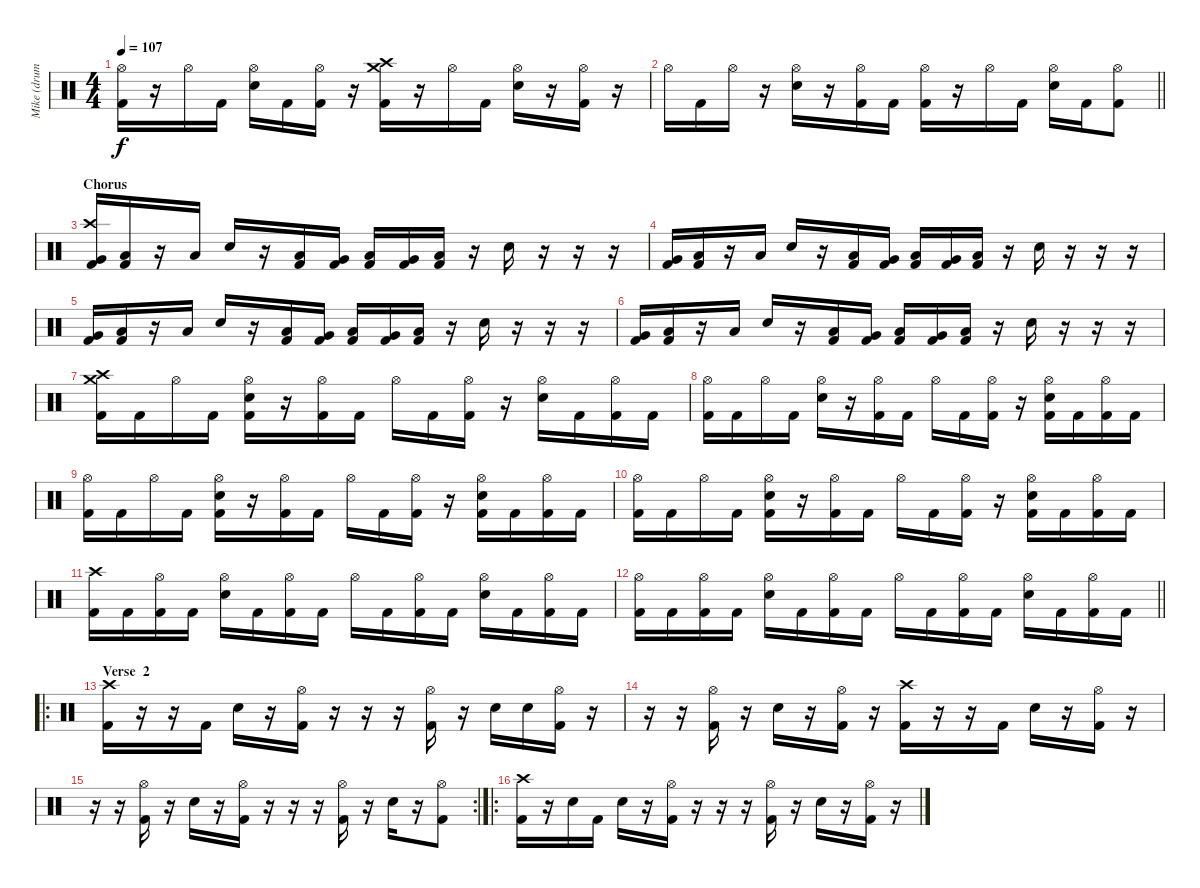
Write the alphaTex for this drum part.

\track ("Mike (drums)" "Mike (drum") {instrument percussion}
\staff {score}
\articulation defaults
\ts (4 4)
\tempo 107
\clef neutral
\ks c
("Hi-Hat (open)" "Kick (hit) 2").16{dy f} r.16 "Hi-Hat (open)".16 "Kick (hit) 2".16 ("Hi-Hat (open)" "Electric Snare (hit)").16 "Kick (hit) 2".16 ("Hi-Hat (open)" "Kick (hit) 2").16 r.16 ("Crash medium (hit)" "Crash high (hit)" "Kick (hit) 2").16 r.16 "Hi-Hat (open)".16 "Kick (hit) 2".16 ("Hi-Hat (open)" "Electric Snare (hit)").16 r.16 ("Hi-Hat (open)" "Kick (hit) 2").16 r.16 |
\barLineRight lightlight "Hi-Hat (open)".16 "Kick (hit) 2".16 "Hi-Hat (open)".16
r.16 ("Hi-Hat (open)" "Electric Snare (hit)").16 r.16 ("Hi-Hat (open)" "Kick (hit) 2").16 "Kick (hit) 2".16 ("Hi-Hat (open)" "Kick (hit) 2").16 r.16 "Hi-Hat (open)".16 "Kick (hit) 2".16 ("Hi-Hat (open)" "Electric Snare (hit)").16 "Kick (hit) 2".16 ("Hi-Hat (open)" "Kick (hit) 2").8 |
\section ("" "Chorus")
("Crash high (hit)" "Very Low Tom (hit)" "Kick (hit) 2").16 ("Low Floor Tom (hit)" "Kick (hit) 2").16 r.16 "Low Floor Tom (hit)".16 "Electric Snare (hit)".16 r.16 ("Low Floor Tom (hit)" "Kick (hit) 2").16 ("Very Low Tom (hit)" "Kick (hit) 2").16 ("Low Floor Tom (hit)" "Kick (hit) 2").16 ("Very Low Tom (hit)" "Kick (hit) 2").16 ("Low Floor Tom (hit)" "Kick (hit) 2").16 r.16 "Electric Snare (hit)".16 r.16 r.16 r.16 |
("Very Low Tom (hit)" "Kick (hit) 2").16 ("Low Floor Tom (hit)" "Kick (hit) 2").16 r.16 "Low Floor Tom (hit)".16 "Electric Snare (hit)".16 r.16 ("Low Floor Tom (hit)" "Kick (hit) 2").16 ("Very Low Tom (hit)" "Kick (hit) 2").16 ("Low Floor Tom (hit)" "Kick (hit) 2").16 ("Very Low Tom (hit)" "Kick (hit) 2").16 ("Low Floor Tom (hit)" "Kick (hit) 2").16 r.16 "Electric Snare (hit)".16 r.16 r.16 r.16 |
("Very Low Tom (hit)" "Kick (hit) 2").16 ("Low Floor Tom (hit)" "Kick (hit) 2").16 r.16 "Low Floor Tom (hit)".16 "Electric Snare (hit)".16 r.16 ("Low Floor Tom (hit)" "Kick (hit) 2").16 ("Very Low Tom (hit)" "Kick (hit) 2").16 ("Low Floor Tom (hit)" "Kick (hit) 2").16 ("Very Low Tom (hit)" "Kick (hit) 2").16 ("Low Floor Tom (hit)" "Kick (hit) 2").16 r.16 "Electric Snare (hit)".16 r.16 r.16 r.16 |
("Very Low Tom (hit)" "Kick (hit) 2").16 ("Low Floor Tom (hit)" "Kick (hit) 2").16 r.16 "Low Floor Tom (hit)".16 "Electric Snare (hit)".16 r.16 ("Low Floor Tom (hit)" "Kick (hit) 2").16 ("Very Low Tom (hit)" "Kick (hit) 2").16 ("Low Floor Tom (hit)" "Kick (hit) 2").16 ("Very Low Tom (hit)" "Kick (hit) 2").16 ("Low Floor Tom (hit)" "Kick (hit) 2").16 r.16 "Electric Snare (hit)".16 r.16 r.16 r.16 |
("Crash medium (hit)" "Crash high (hit)" "Kick (hit) 2").16 "Kick (hit) 2".16 "Hi-Hat (open)".16 "Kick (hit) 2".16 ("Hi-Hat (open)" "Electric Snare (hit)" "Kick (hit) 2").16 r.16 ("Hi-Hat (open)" "Kick (hit) 2").16 "Kick (hit) 2".16 "Hi-Hat (open)".16 "Kick (hit) 2".16 ("Hi-Hat (open)" "Kick (hit) 2").16 r.16 ("Hi-Hat (open)" "Electric Snare (hit)").16 "Kick (hit) 2".16 ("Hi-Hat (open)" "Kick (hit) 2").16 "Kick (hit) 2".16 |
("Hi-Hat (open)" "Kick (hit) 2").16 "Kick (hit) 2".16 "Hi-Hat (open)".16 "Kick (hit) 2".16 ("Hi-Hat (open)" "Electric Snare (hit)").16 r.16 ("Hi-Hat (open)" "Kick (hit) 2").16 "Kick (hit) 2".16 "Hi-Hat (open)".16 "Kick (hit) 2".16 ("Hi-Hat (open)" "Kick (hit) 2").16 r.16 ("Hi-Hat (open)" "Electric Snare (hit)" "Kick (hit) 2").16 "Kick (hit) 2".16 ("Hi-Hat (open)" "Kick (hit) 2").16 "Kick (hit) 2".16 |
("Hi-Hat (open)" "Kick (hit) 2").16 "Kick (hit) 2".16 "Hi-Hat (open)".16 "Kick (hit) 2".16 ("Hi-Hat (open)" "Electric Snare (hit)" "Kick (hit) 2").16 r.16 ("Hi-Hat (open)" "Kick (hit) 2").16 "Kick (hit) 2".16 "Hi-Hat (open)".16 "Kick (hit) 2".16 ("Hi-Hat (open)" "Kick (hit) 2").16 r.16 ("Hi-Hat (open)" "Electric Snare (hit)" "Kick (hit) 2").16 "Kick (hit) 2".16 ("Hi-Hat (open)" "Kick (hit) 2").16 "Kick (hit) 2".16 |
("Hi-Hat (open)" "Kick (hit) 2").16 "Kick (hit) 2".16 "Hi-Hat (open)".16 "Kick (hit) 2".16 ("Electric Snare (hit)" "Hi-Hat (open)" "Kick (hit) 2").16 r.16 ("Hi-Hat (open)" "Kick (hit) 2").16 "Kick (hit) 2".16 "Hi-Hat (open)".16 "Kick (hit) 2".16 ("Hi-Hat (open)" "Kick (hit) 2").16 r.16 ("Hi-Hat (open)" "Electric Snare (hit)" "Kick (hit) 2").16 "Kick (hit) 2".16 ("Hi-Hat (open)" "Kick (hit) 2").16 "Kick (hit) 2".16 |
("Crash high (hit)" "Kick (hit) 2").16 "Kick (hit) 2".16 ("Hi-Hat (open)" "Kick (hit) 2").16 "Kick (hit) 2".16 ("Hi-Hat (open)" "Electric Snare (hit)").16 "Kick (hit) 2".16 ("Hi-Hat (open)" "Kick (hit) 2").16 "Kick (hit) 2".16 "Hi-Hat (open)".16 "Kick (hit) 2".16 ("Hi-Hat (open)" "Kick (hit) 2").16 "Kick (hit) 2".16 ("Hi-Hat (open)" "Electric Snare (hit)").16 "Kick (hit) 2".16 ("Hi-Hat (open)" "Kick (hit) 2").16 "Kick (hit) 2".16 |
\barLineRight lightlight
("Hi-Hat (open)" "Kick (hit) 2").16 "Kick (hit) 2".16 ("Hi-Hat (open)" "Kick (hit) 2").16 "Kick (hit) 2".16 ("Hi-Hat (open)" "Electric Snare (hit)").16 "Kick (hit) 2".16 ("Hi-Hat (open)" "Kick (hit) 2").16 "Kick (hit) 2".16 "Hi-Hat (open)".16 "Kick (hit) 2".16 ("Hi-Hat (open)" "Kick (hit) 2").16 "Kick (hit) 2".16 ("Hi-Hat (open)" "Electric Snare (hit)").16 "Kick (hit) 2".16 ("Hi-Hat (open)" "Kick (hit) 2").16 "Kick (hit) 2".16 |
\ro
\section ("" "Verse  2")
("Crash high (hit)" "Kick (hit) 2").16 r.16 r.16 "Kick (hit) 2".16 "Electric Snare (hit)".16 r.16 ("Hi-Hat (open)" "Kick (hit) 2").16 r.16 r.16 r.16 ("Hi-Hat (open)" "Kick (hit) 2").16 r.16 "Electric Snare (hit)".16 "Snare (hit)".16 ("Hi-Hat (open)" "Kick (hit) 2").16 r.16 |
r.16 r.16 ("Hi-Hat (open)" "Kick (hit) 2").16 r.16 "Electric Snare (hit)".16 r.16 ("Hi-Hat (open)" "Kick (hit) 2").16 r.16 ("Crash high (hit)" "Kick (hit) 2").16 r.16 r.16 "Kick (hit) 2".16 "Electric Snare (hit)".16 r.16 ("Hi-Hat (open)" "Kick (hit) 2").16 r.16 |
\rc 2
r.16 r.16 ("Hi-Hat (open)" "Kick (hit) 2").16 r.16 "Electric Snare (hit)".16 r.16 ("Hi-Hat (open)" "Kick (hit) 2").16 r.16 r.16 r.16 ("Hi-Hat (open)" "Kick (hit) 2").16 r.16 "Electric Snare (hit)".16 r.16 ("Hi-Hat (open)" "Kick (hit) 2").8 |
\ro
("Crash high (hit)" "Kick (hit) 2").16 r.16 "Snare (hit)".16 "Kick (hit) 2".16 "Electric Snare (hit)".16 r.16 ("Hi-Hat (open)" "Kick (hit) 2").16 r.16 r.16 r.16 ("Hi-Hat (open)" "Kick (hit) 2").16 r.16 "Electric Snare (hit)".16 r.16 ("Hi-Hat (open)" "Kick (hit) 2").16 r.16
